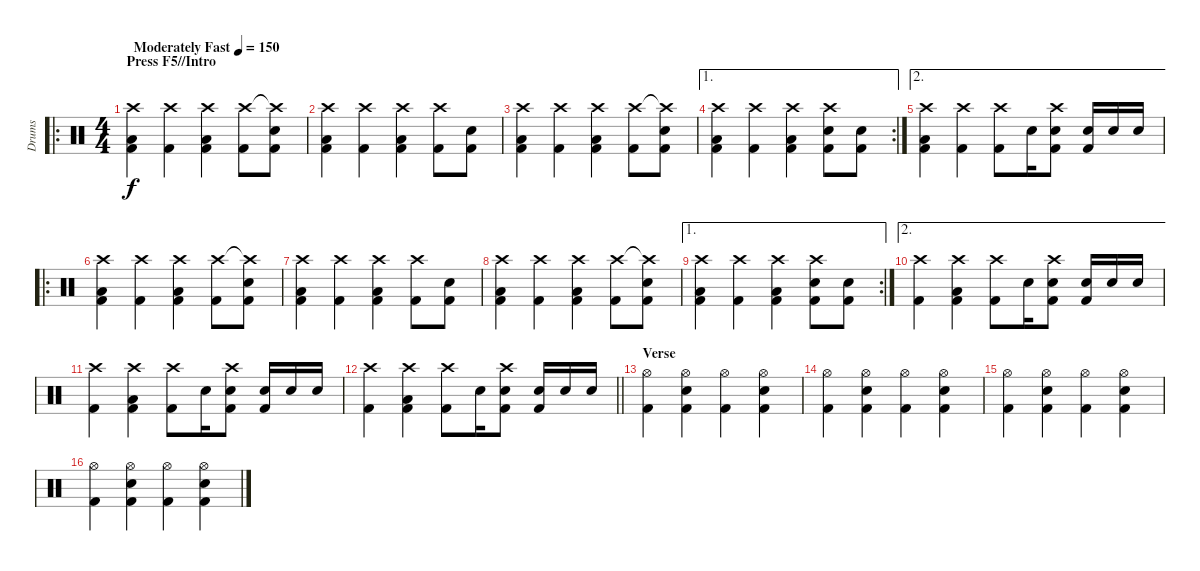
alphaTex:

\track ("Drums" "Drums") {instrument percussion}
\staff {score}
\articulation defaults
\ro
\ts (4 4)
\section ("" "Press F5//Intro")
\tempo (150 "Moderately Fast")
\clef neutral
\ks c
("Crash high (hit)" "Kick (hit) 2" "Low Tom (hit)").4{dy f} ("Crash high (hit)" "Kick (hit) 2").4 ("Crash high (hit)" "Kick (hit) 2" "Low Tom (hit)").4 ("Crash high (hit)" "Kick (hit) 2").8 ("Crash high (hit)"{t} "Kick (hit) 2" "Electric Snare (hit)").8 |
("Crash high (hit)" "Kick (hit) 2" "Low Tom (hit)").4 ("Crash high (hit)" "Kick (hit) 2").4 ("Crash high (hit)" "Kick (hit) 2" "Low Tom (hit)").4 ("Crash high (hit)" "Kick (hit) 2").8 ("Kick (hit) 2" "Electric Snare (hit)").8 |
("Crash high (hit)" "Kick (hit) 2" "Low Tom (hit)").4 ("Crash high (hit)" "Kick (hit) 2").4 ("Crash high (hit)" "Kick (hit) 2" "Low Tom (hit)").4 ("Crash high (hit)" "Kick (hit) 2").8 ("Crash high (hit)"{t} "Kick (hit) 2" "Electric Snare (hit)").8 |
\ae 1
\rc 2
("Crash high (hit)" "Kick (hit) 2" "Low Tom (hit)").4 ("Crash high (hit)" "Kick (hit) 2").4 ("Crash high (hit)" "Kick (hit) 2" "Low Tom (hit)").4 ("Crash high (hit)" "Kick (hit) 2" "Electric Snare (hit)").8 ("Kick (hit) 2" "Electric Snare (hit)").8 |
\ae 2
("Crash high (hit)" "Kick (hit) 2" "Low Tom (hit)").4 ("Crash high (hit)" "Kick (hit) 2").4 ("Crash high (hit)" "Kick (hit) 2").8 "Electric Snare (hit)".16 ("Crash high (hit)" "Kick (hit) 2" "Electric Snare (hit)").8 ("Kick (hit) 2" "Electric Snare (hit)").16 "Electric Snare (hit)".16 "Electric Snare (hit)".16 |
\ro
("Crash high (hit)" "Kick (hit) 2" "Low Tom (hit)").4 ("Crash high (hit)" "Kick (hit) 2").4 ("Crash high (hit)" "Kick (hit) 2" "Low Tom (hit)").4 ("Crash high (hit)" "Kick (hit) 2").8 ("Crash high (hit)"{t} "Kick (hit) 2" "Electric Snare (hit)").8 |
("Crash high (hit)" "Kick (hit) 2" "Low Tom (hit)").4 ("Crash high (hit)" "Kick (hit) 2").4 ("Crash high (hit)" "Kick (hit) 2" "Low Tom (hit)").4 ("Crash high (hit)" "Kick (hit) 2").8 ("Kick (hit) 2" "Electric Snare (hit)").8 |
("Crash high (hit)" "Kick (hit) 2" "Low Tom (hit)").4 ("Crash high (hit)" "Kick (hit) 2").4 ("Crash high (hit)" "Kick (hit) 2" "Low Tom (hit)").4 ("Crash high (hit)" "Kick (hit) 2").8 ("Crash high (hit)"{t} "Kick (hit) 2" "Electric Snare (hit)").8 |
\ae 1
\rc 2
("Crash high (hit)" "Kick (hit) 2" "Low Tom (hit)").4 ("Crash high (hit)" "Kick (hit) 2").4 ("Crash high (hit)" "Kick (hit) 2" "Low Tom (hit)").4 ("Crash high (hit)" "Kick (hit) 2" "Electric Snare (hit)").8 ("Kick (hit) 2" "Electric Snare (hit)").8 |
\ae 2
("Crash high (hit)" "Kick (hit) 2").4 ("Crash high (hit)" "Kick (hit) 2" "Low Tom (hit)").4 ("Crash high (hit)" "Kick (hit) 2").8 "Electric Snare (hit)".16 ("Crash high (hit)" "Kick (hit) 2" "Electric Snare (hit)").8 ("Kick (hit) 2" "Electric Snare (hit)").16 "Electric Snare (hit)".16 "Electric Snare (hit)".16 |
("Crash high (hit)" "Kick (hit) 2").4 ("Crash high (hit)" "Kick (hit) 2" "Low Tom (hit)").4 ("Crash high (hit)" "Kick (hit) 2").8 "Electric Snare (hit)".16 ("Crash high (hit)" "Kick (hit) 2" "Electric Snare (hit)").8 ("Kick (hit) 2" "Electric Snare (hit)").16 "Electric Snare (hit)".16 "Electric Snare (hit)".16 |
\barLineRight lightlight
("Crash high (hit)" "Kick (hit) 2").4 ("Crash high (hit)" "Kick (hit) 2" "Low Tom (hit)").4 ("Crash high (hit)" "Kick (hit) 2").8 "Electric Snare (hit)".16 ("Crash high (hit)" "Kick (hit) 2" "Electric Snare (hit)").8 ("Kick (hit) 2" "Electric Snare (hit)").16 "Electric Snare (hit)".16 "Electric Snare (hit)".16 |
\section ("" "Verse")
("Hi-Hat (open)" "Kick (hit) 2").4 ("Hi-Hat (open)" "Kick (hit) 2" "Electric Snare (hit)").4 ("Hi-Hat (open)" "Kick (hit) 2").4 ("Hi-Hat (open)" "Kick (hit) 2" "Electric Snare (hit)").4 |
("Hi-Hat (open)" "Kick (hit) 2").4 ("Hi-Hat (open)" "Kick (hit) 2" "Electric Snare (hit)").4 ("Hi-Hat (open)" "Kick (hit) 2").4 ("Hi-Hat (open)" "Kick (hit) 2" "Electric Snare (hit)").4 |
("Hi-Hat (open)" "Kick (hit) 2").4 ("Hi-Hat (open)" "Kick (hit) 2" "Electric Snare (hit)").4 ("Hi-Hat (open)" "Kick (hit) 2").4 ("Hi-Hat (open)" "Kick (hit) 2" "Electric Snare (hit)").4 |
("Hi-Hat (open)" "Kick (hit) 2").4 ("Hi-Hat (open)" "Kick (hit) 2" "Electric Snare (hit)").4 ("Hi-Hat (open)" "Kick (hit) 2").4 ("Hi-Hat (open)" "Kick (hit) 2" "Electric Snare (hit)").4
